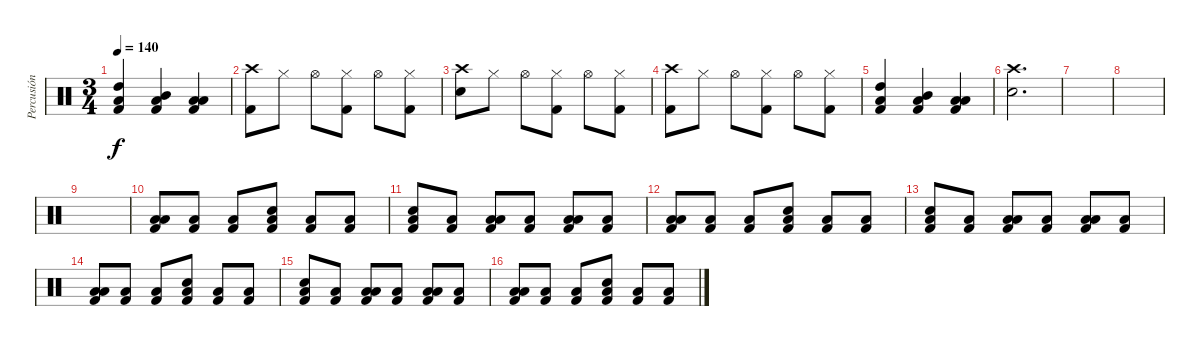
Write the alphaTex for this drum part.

\track ("Percusión" "Percusión") {instrument percussion}
\staff {score}
\articulation defaults
\ts (3 4)
\tempo 140
\clef neutral
\ks c
("High Tom (hit)" "Low Floor Tom (hit)" "Kick (hit) 2").4{dy f} ("Mid Tom (hit)" "Low Floor Tom (hit)" "Kick (hit) 2").4 ("Low Tom (hit)" "Low Floor Tom (hit)" "Kick (hit) 2").4 |
("Crash high (hit)" "Kick (hit) 2").8 "Hi-Hat (closed)".8 "Hi-Hat (open)".8 ("Hi-Hat (closed)" "Kick (hit) 2").8 "Hi-Hat (open)".8 ("Hi-Hat (closed)" "Kick (hit) 2").8 |
("Crash high (hit)" "Electric Snare (hit)").8 "Hi-Hat (closed)".8 "Hi-Hat (open)".8 ("Hi-Hat (closed)" "Kick (hit) 2").8 "Hi-Hat (open)".8 ("Hi-Hat (closed)" "Kick (hit) 2").8 |
("Crash high (hit)" "Kick (hit) 2").8 "Hi-Hat (closed)".8 "Hi-Hat (open)".8 ("Hi-Hat (closed)" "Kick (hit) 2").8 "Hi-Hat (open)".8 ("Hi-Hat (closed)" "Kick (hit) 2").8 |
("High Tom (hit)" "Low Floor Tom (hit)" "Kick (hit) 2").4 ("Mid Tom (hit)" "Low Floor Tom (hit)" "Kick (hit) 2").4 ("Low Tom (hit)" "Low Floor Tom (hit)" "Kick (hit) 2").4 |
("Crash high (hit)" "Electric Snare (hit)").2{d} |
|
|
|
("Low Tom (hit)" "Low Floor Tom (hit)" "Kick (hit) 2").8 ("Low Floor Tom (hit)" "Kick (hit) 2").8 ("Low Floor Tom (hit)" "Kick (hit) 2").8 ("Electric Snare (hit)" "Low Floor Tom (hit)" "Kick (hit) 2").8 ("Low Floor Tom (hit)" "Kick (hit) 2").8 ("Low Floor Tom (hit)" "Kick (hit) 2").8 |
("Electric Snare (hit)" "Low Floor Tom (hit)" "Kick (hit) 2").8 ("Low Floor Tom (hit)" "Kick (hit) 2").8 ("Low Tom (hit)" "Low Floor Tom (hit)" "Kick (hit) 2").8 ("Low Floor Tom (hit)" "Kick (hit) 2").8 ("Low Tom (hit)" "Low Floor Tom (hit)" "Kick (hit) 2").8 ("Low Floor Tom (hit)" "Kick (hit) 2").8 |
("Low Tom (hit)" "Low Floor Tom (hit)" "Kick (hit) 2").8 ("Low Floor Tom (hit)" "Kick (hit) 2").8 ("Low Floor Tom (hit)" "Kick (hit) 2").8 ("Electric Snare (hit)" "Low Floor Tom (hit)" "Kick (hit) 2").8 ("Low Floor Tom (hit)" "Kick (hit) 2").8 ("Low Floor Tom (hit)" "Kick (hit) 2").8 |
("Electric Snare (hit)" "Low Floor Tom (hit)" "Kick (hit) 2").8 ("Low Floor Tom (hit)" "Kick (hit) 2").8 ("Low Tom (hit)" "Low Floor Tom (hit)" "Kick (hit) 2").8 ("Low Floor Tom (hit)" "Kick (hit) 2").8 ("Low Tom (hit)" "Low Floor Tom (hit)" "Kick (hit) 2").8 ("Low Floor Tom (hit)" "Kick (hit) 2").8 |
("Low Tom (hit)" "Low Floor Tom (hit)" "Kick (hit) 2").8 ("Low Floor Tom (hit)" "Kick (hit) 2").8 ("Low Floor Tom (hit)" "Kick (hit) 2").8 ("Electric Snare (hit)" "Low Floor Tom (hit)" "Kick (hit) 2").8 ("Low Floor Tom (hit)" "Kick (hit) 2").8 ("Low Floor Tom (hit)" "Kick (hit) 2").8 |
("Electric Snare (hit)" "Low Floor Tom (hit)" "Kick (hit) 2").8 ("Low Floor Tom (hit)" "Kick (hit) 2").8 ("Low Tom (hit)" "Low Floor Tom (hit)" "Kick (hit) 2").8 ("Low Floor Tom (hit)" "Kick (hit) 2").8 ("Low Tom (hit)" "Low Floor Tom (hit)" "Kick (hit) 2").8 ("Low Floor Tom (hit)" "Kick (hit) 2").8 |
("Low Tom (hit)" "Low Floor Tom (hit)" "Kick (hit) 2").8 ("Low Floor Tom (hit)" "Kick (hit) 2").8 ("Low Floor Tom (hit)" "Kick (hit) 2").8 ("Electric Snare (hit)" "Low Floor Tom (hit)" "Kick (hit) 2").8 ("Low Floor Tom (hit)" "Kick (hit) 2").8 ("Low Floor Tom (hit)" "Kick (hit) 2").8
